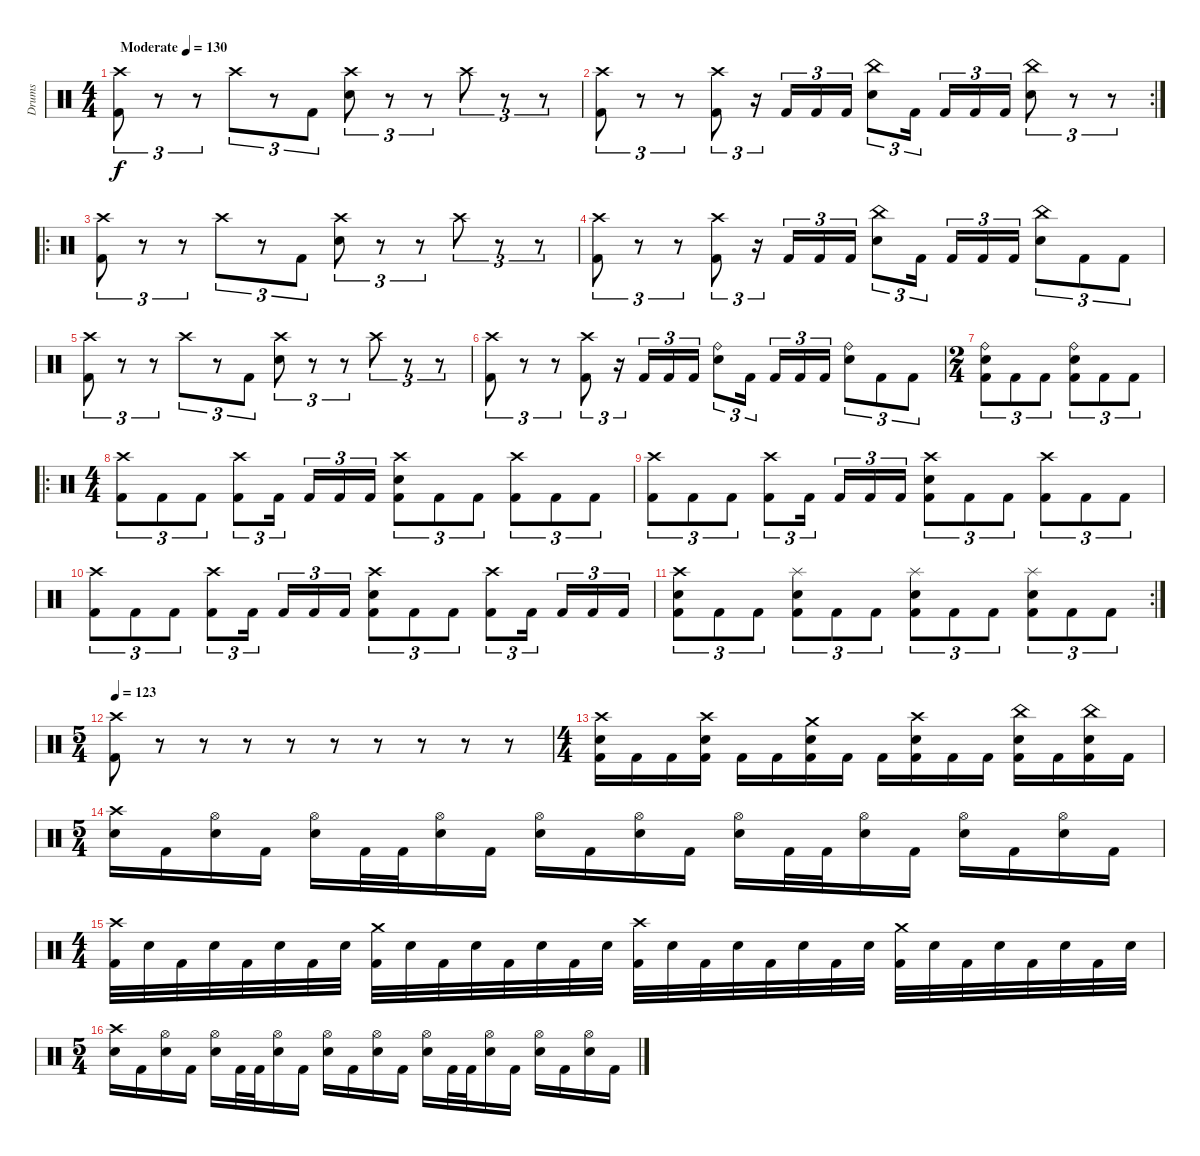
\track ("Drums" "Drums") {instrument percussion}
\staff {score}
\articulation defaults
\ts (4 4)
\tempo (130 "Moderate")
\clef neutral
\ks c
("Crash high (hit)" "Kick (hit) 2").8{tu (3 2) dy f} r.8{tu (3 2)} r.8{tu (3 2)} "Crash high (hit)".8{tu (3 2)} r.8{tu (3 2)} "Kick (hit) 2".8{tu (3 2)} ("Crash high (hit)" "Electric Snare (hit)").8{tu (3 2)} r.8{tu (3 2)} r.8{tu (3 2)} "Crash high (hit)".8{tu (3 2)} r.8{tu (3 2)} r.8{tu (3 2)} |
\rc 2
("Crash high (hit)" "Kick (hit) 2").8{tu (3 2)} r.8{tu (3 2)} r.8{tu (3 2)} ("Crash high (hit)" "Kick (hit) 2").8{tu (3 2)} r.16{tu (3 2)} "Kick (hit) 2".16{tu (3 2)} "Kick (hit) 2".16{tu (3 2)} "Kick (hit) 2".16{tu (3 2)} ("China (hit)" "Electric Snare (hit)").8{tu (3 2)} "Kick (hit) 2".16{tu (3 2) beam splitsecondary} "Kick (hit) 2".16{tu (3 2)} "Kick (hit) 2".16{tu (3 2)} "Kick (hit) 2".16{tu (3 2)} ("China (hit)" "Electric Snare (hit)").8{tu (3 2)} r.8{tu (3 2)} r.8{tu (3 2)} |
\ro
("Crash high (hit)" "Kick (hit) 2").8{tu (3 2)} r.8{tu (3 2)} r.8{tu (3 2)} "Crash high (hit)".8{tu (3 2)} r.8{tu (3 2)} "Kick (hit) 2".8{tu (3 2)} ("Crash high (hit)" "Electric Snare (hit)").8{tu (3 2)} r.8{tu (3 2)} r.8{tu (3 2)} "Crash high (hit)".8{tu (3 2)} r.8{tu (3 2)} r.8{tu (3 2)} |
("Crash high (hit)" "Kick (hit) 2").8{tu (3 2)} r.8{tu (3 2)} r.8{tu (3 2)} ("Crash high (hit)" "Kick (hit) 2").8{tu (3 2)} r.16{tu (3 2)} "Kick (hit) 2".16{tu (3 2)} "Kick (hit) 2".16{tu (3 2)} "Kick (hit) 2".16{tu (3 2)} ("China (hit)" "Electric Snare (hit)").8{tu (3 2)} "Kick (hit) 2".16{tu (3 2) beam splitsecondary} "Kick (hit) 2".16{tu (3 2)} "Kick (hit) 2".16{tu (3 2)} "Kick (hit) 2".16{tu (3 2)} ("China (hit)" "Electric Snare (hit)").8{tu (3 2)} "Kick (hit) 2".8{tu (3 2)} "Kick (hit) 2".8{tu (3 2)} |
("Crash high (hit)" "Kick (hit) 2").8{tu (3 2)} r.8{tu (3 2)} r.8{tu (3 2)} "Crash high (hit)".8{tu (3 2)} r.8{tu (3 2)} "Kick (hit) 2".8{tu (3 2)} ("Crash high (hit)" "Electric Snare (hit)").8{tu (3 2)} r.8{tu (3 2)} r.8{tu (3 2)} "Crash high (hit)".8{tu (3 2)} r.8{tu (3 2)} r.8{tu (3 2)} |
("Crash high (hit)" "Kick (hit) 2").8{tu (3 2)} r.8{tu (3 2)} r.8{tu (3 2)} ("Crash high (hit)" "Kick (hit) 2").8{tu (3 2)} r.16{tu (3 2)} "Kick (hit) 2".16{tu (3 2)} "Kick (hit) 2".16{tu (3 2)} "Kick (hit) 2".16{tu (3 2)} ("Ride (bell)" "Electric Snare (hit)").8{tu (3 2)} "Kick (hit) 2".16{tu (3 2) beam splitsecondary} "Kick (hit) 2".16{tu (3 2)} "Kick (hit) 2".16{tu (3 2)} "Kick (hit) 2".16{tu (3 2)} ("Ride (bell)" "Electric Snare (hit)").8{tu (3 2)} "Kick (hit) 2".8{tu (3 2)} "Kick (hit) 2".8{tu (3 2)} |
\ts (2 4)
("Ride (bell)" "Electric Snare (hit)" "Kick (hit) 2").8{tu (3 2)} "Kick (hit) 2".8{tu (3 2)} "Kick (hit) 2".8{tu (3 2)} ("Ride (bell)" "Electric Snare (hit)" "Kick (hit) 2").8{tu (3 2)} "Kick (hit) 2".8{tu (3 2)} "Kick (hit) 2".8{tu (3 2)} |
\ro
\ts (4 4)
("Crash high (hit)" "Kick (hit) 2").8{tu (3 2)} "Kick (hit) 2".8{tu (3 2)} "Kick (hit) 2".8{tu (3 2)} ("Crash high (hit)" "Kick (hit) 2").8{tu (3 2)} "Kick (hit) 2".16{tu (3 2) beam splitsecondary} "Kick (hit) 2".16{tu (3 2)} "Kick (hit) 2".16{tu (3 2)} "Kick (hit) 2".16{tu (3 2)} ("Crash high (hit)" "Electric Snare (hit)" "Kick (hit) 2").8{tu (3 2)} "Kick (hit) 2".8{tu (3 2)} "Kick (hit) 2".8{tu (3 2)} ("Crash high (hit)" "Kick (hit) 2").8{tu (3 2)} "Kick (hit) 2".8{tu (3 2)} "Kick (hit) 2".8{tu (3 2)} |
("Crash high (hit)" "Kick (hit) 2").8{tu (3 2)} "Kick (hit) 2".8{tu (3 2)} "Kick (hit) 2".8{tu (3 2)} ("Crash high (hit)" "Kick (hit) 2").8{tu (3 2)} "Kick (hit) 2".16{tu (3 2) beam splitsecondary} "Kick (hit) 2".16{tu (3 2)} "Kick (hit) 2".16{tu (3 2)} "Kick (hit) 2".16{tu (3 2)} ("Crash high (hit)" "Electric Snare (hit)" "Kick (hit) 2").8{tu (3 2)} "Kick (hit) 2".8{tu (3 2)} "Kick (hit) 2".8{tu (3 2)} ("Crash high (hit)" "Kick (hit) 2").8{tu (3 2)} "Kick (hit) 2".8{tu (3 2)} "Kick (hit) 2".8{tu (3 2)} |
("Crash high (hit)" "Kick (hit) 2").8{tu (3 2)} "Kick (hit) 2".8{tu (3 2)} "Kick (hit) 2".8{tu (3 2)} ("Crash high (hit)" "Kick (hit) 2").8{tu (3 2)} "Kick (hit) 2".16{tu (3 2) beam splitsecondary} "Kick (hit) 2".16{tu (3 2)} "Kick (hit) 2".16{tu (3 2)} "Kick (hit) 2".16{tu (3 2)} ("Crash high (hit)" "Electric Snare (hit)" "Kick (hit) 2").8{tu (3 2)} "Kick (hit) 2".8{tu (3 2)} "Kick (hit) 2".8{tu (3 2)} ("Crash high (hit)" "Kick (hit) 2").8{tu (3 2)} "Kick (hit) 2".16{tu (3 2) beam splitsecondary} "Kick (hit) 2".16{tu (3 2)} "Kick (hit) 2".16{tu (3 2)} "Kick (hit) 2".16{tu (3 2)} |
\rc 2
("Crash high (hit)" "Electric Snare (hit)" "Kick (hit) 2").8{tu (3 2)} "Kick (hit) 2".8{tu (3 2)} "Kick (hit) 2".8{tu (3 2)} ("Splash (hit)" "Electric Snare (hit)" "Kick (hit) 2").8{tu (3 2)} "Kick (hit) 2".8{tu (3 2)} "Kick (hit) 2".8{tu (3 2)} ("Splash (hit)" "Electric Snare (hit)" "Kick (hit) 2").8{tu (3 2)} "Kick (hit) 2".8{tu (3 2)} "Kick (hit) 2".8{tu (3 2)} ("Splash (hit)" "Electric Snare (hit)" "Kick (hit) 2").8{tu (3 2)} "Kick (hit) 2".8{tu (3 2)} "Kick (hit) 2".8{tu (3 2)} |
\ts (5 4)
\tempo 123
("Crash high (hit)" "Kick (hit) 2").8 r.8{volume 0} r.8 r.8 r.8 r.8 r.8 r.8 r.8 r.8 |
\ts (4 4)
("Crash high (hit)" "Electric Snare (hit)" "Kick (hit) 2").16{volume 13} "Kick (hit) 2".16 "Kick (hit) 2".16 ("Crash high (hit)" "Electric Snare (hit)" "Kick (hit) 2").16 "Kick (hit) 2".16 "Kick (hit) 2".16 ("Crash medium (hit)" "Electric Snare (hit)" "Kick (hit) 2").16 "Kick (hit) 2".16 "Kick (hit) 2".16 ("Crash high (hit)" "Electric Snare (hit)" "Kick (hit) 2").16 "Kick (hit) 2".16 "Kick (hit) 2".16 ("China (hit)" "Electric Snare (hit)" "Kick (hit) 2").16 "Kick (hit) 2".16 ("China (hit)" "Electric Snare (hit)" "Kick (hit) 2").16 "Kick (hit) 2".16 |
\ts (5 4)
("Crash high (hit)" "Electric Snare (hit)").16 "Kick (hit) 2".16 ("Hi-Hat (open)" "Electric Snare (hit)").16 "Kick (hit) 2".16 ("Hi-Hat (open)" "Electric Snare (hit)").16 "Kick (hit) 2".32 "Kick (hit) 2".32 ("Hi-Hat (open)" "Electric Snare (hit)").16 "Kick (hit) 2".16 ("Hi-Hat (open)" "Electric Snare (hit)").16 "Kick (hit) 2".16 ("Hi-Hat (open)" "Electric Snare (hit)").16 "Kick (hit) 2".16 ("Hi-Hat (open)" "Electric Snare (hit)").16 "Kick (hit) 2".32 "Kick (hit) 2".32 ("Hi-Hat (open)" "Electric Snare (hit)").16 "Kick (hit) 2".16 ("Hi-Hat (open)" "Electric Snare (hit)").16 "Kick (hit) 2".16 ("Hi-Hat (open)" "Electric Snare (hit)").16 "Kick (hit) 2".16 |
\ts (4 4)
("Crash high (hit)" "Kick (hit) 2").32 "Electric Snare (hit)".32 "Kick (hit) 2".32 "Electric Snare (hit)".32 "Kick (hit) 2".32 "Electric Snare (hit)".32 "Kick (hit) 2".32 "Electric Snare (hit)".32 ("Crash medium (hit)" "Kick (hit) 2").32 "Electric Snare (hit)".32 "Kick (hit) 2".32 "Electric Snare (hit)".32 "Kick (hit) 2".32 "Electric Snare (hit)".32 "Kick (hit) 2".32 "Electric Snare (hit)".32 ("Crash high (hit)" "Kick (hit) 2").32 "Electric Snare (hit)".32 "Kick (hit) 2".32 "Electric Snare (hit)".32 "Kick (hit) 2".32 "Electric Snare (hit)".32 "Kick (hit) 2".32 "Electric Snare (hit)".32 ("Crash medium (hit)" "Kick (hit) 2").32 "Electric Snare (hit)".32 "Kick (hit) 2".32 "Electric Snare (hit)".32 "Kick (hit) 2".32 "Electric Snare (hit)".32 "Kick (hit) 2".32 "Electric Snare (hit)".32 |
\ts (5 4)
("Crash high (hit)" "Electric Snare (hit)").16 "Kick (hit) 2".16 ("Hi-Hat (open)" "Electric Snare (hit)").16 "Kick (hit) 2".16 ("Hi-Hat (open)" "Electric Snare (hit)").16 "Kick (hit) 2".32 "Kick (hit) 2".32 ("Hi-Hat (open)" "Electric Snare (hit)").16 "Kick (hit) 2".16 ("Hi-Hat (open)" "Electric Snare (hit)").16 "Kick (hit) 2".16 ("Hi-Hat (open)" "Electric Snare (hit)").16 "Kick (hit) 2".16 ("Hi-Hat (open)" "Electric Snare (hit)").16 "Kick (hit) 2".32 "Kick (hit) 2".32 ("Hi-Hat (open)" "Electric Snare (hit)").16 "Kick (hit) 2".16 ("Hi-Hat (open)" "Electric Snare (hit)").16 "Kick (hit) 2".16 ("Hi-Hat (open)" "Electric Snare (hit)").16 "Kick (hit) 2".16
